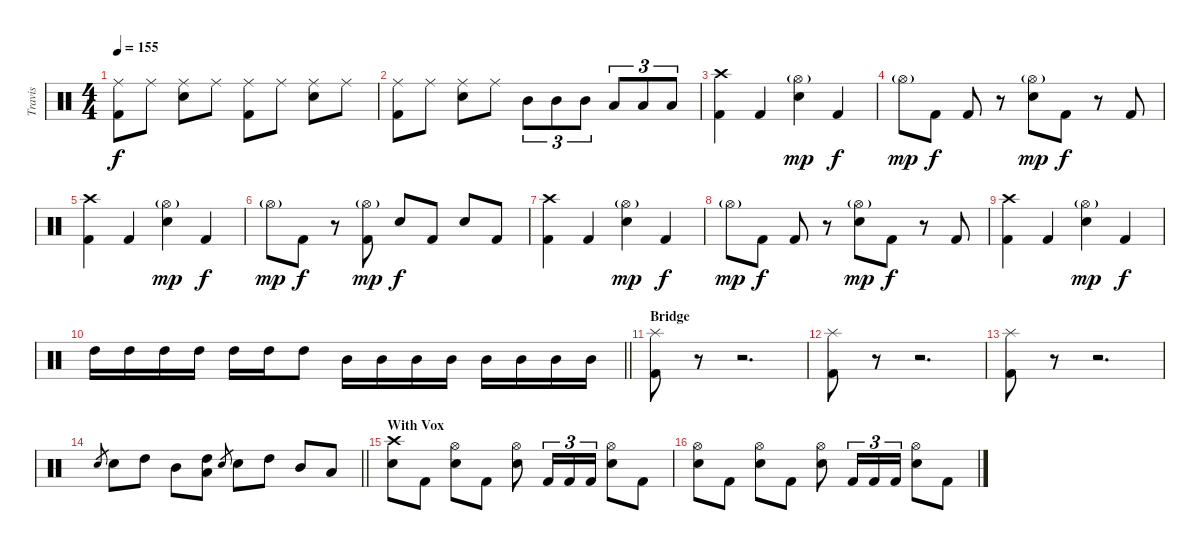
\track ("Travis" "Travis") {instrument percussion}
\staff {score}
\articulation defaults
\ts (4 4)
\tempo 155
\clef neutral
\ks c
("Ride (middle)" "Kick (hit) 2").8{dy f} "Ride (middle)".8 ("Ride (middle)" "Snare (hit) 2").8 "Ride (middle)".8 ("Ride (middle)" "Kick (hit) 2").8 "Ride (middle)".8 ("Ride (middle)" "Snare (hit) 2").8 "Ride (middle)".8 |
("Ride (middle)" "Kick (hit) 2").8 "Ride (middle)".8 ("Ride (middle)" "Snare (hit) 2").8 "Ride (middle)".8 "Mid Tom (hit)".8{tu (3 2)} "Mid Tom (hit)".8{tu (3 2)} "Mid Tom (hit)".8{tu (3 2)} "Low Tom (hit)".8{tu (3 2)} "Low Tom (hit)".8{tu (3 2)} "Low Tom (hit)".8{tu (3 2)} |
("Crash high (hit)" "Kick (hit) 2").4 "Kick (hit) 2".4 ("Hi-Hat (open)"{g} "Snare (hit) 2").4{dy mp} "Kick (hit) 2".4{dy f} |
"Hi-Hat (open)"{g}.8{dy mp} "Kick (hit) 2".8{dy f} "Kick (hit) 2".8 r.8 ("Hi-Hat (open)"{g} "Snare (hit) 2").8{dy mp} "Kick (hit) 2".8{dy f} r.8 "Kick (hit) 2".8 |
("Crash high (hit)" "Kick (hit) 2").4 "Kick (hit) 2".4 ("Hi-Hat (open)"{g} "Snare (hit) 2").4{dy mp} "Kick (hit) 2".4{dy f} |
"Hi-Hat (open)"{g}.8{dy mp} "Kick (hit) 2".8{dy f} r.8 ("Hi-Hat (open)"{g} "Kick (hit) 2").8{dy mp} "Snare (hit) 2".8{dy f} "Kick (hit) 2".8 "Snare (hit) 2".8 "Kick (hit) 2".8 |
("Crash high (hit)" "Kick (hit) 2").4 "Kick (hit) 2".4 ("Hi-Hat (open)"{g} "Snare (hit) 2").4{dy mp} "Kick (hit) 2".4{dy f} |
"Hi-Hat (open)"{g}.8{dy mp} "Kick (hit) 2".8{dy f} "Kick (hit) 2".8 r.8 ("Hi-Hat (open)"{g} "Snare (hit) 2").8{dy mp} "Kick (hit) 2".8{dy f} r.8 "Kick (hit) 2".8 |
("Crash high (hit)" "Kick (hit) 2").4 "Kick (hit) 2".4 ("Hi-Hat (open)"{g} "Snare (hit) 2").4{dy mp} "Kick (hit) 2".4{dy f} |
\barLineRight lightlight "High Tom (hit)".16 "High Tom (hit)".16 "High Tom (hit)".16 "High Tom (hit)".16 "High Tom (hit)".16 "High Tom (hit)".16 "High Tom (hit)".8 "Mid Tom (hit)".16 "Mid Tom (hit)".16 "Mid Tom (hit)".16 "Mid Tom (hit)".16 "Mid Tom (hit)".16 "Mid Tom (hit)".16 "Mid Tom (hit)".16 "Mid Tom (hit)".16
|
\section ("" "Bridge")
("Splash (hit)" "Kick (hit) 2").8 r.8 r.2{d} |
("Splash (hit)" "Kick (hit) 2").8 r.8 r.2{d} |
("Splash (hit)" "Kick (hit) 2").8 r.8 r.2{d} |
\barLineRight lightlight "Snare (hit) 2".8{gr} "Snare (hit) 2".8 "High Tom (hit)".8 "Mid Tom (hit)".8
("High Tom (hit)" "Low Tom (hit)").8 "Snare (hit) 2".8{gr} "Snare (hit) 2".8 "High Tom (hit)".8 "Mid Tom (hit)".8 "Low Tom (hit)".8 |
\section ("" "With Vox")
("Crash high (hit)" "Snare (hit) 2").8 "Kick (hit) 2".8 ("Hi-Hat (open)" "Snare (hit) 2").8 "Kick (hit) 2".8 ("Hi-Hat (open)" "Snare (hit) 2").8 "Kick (hit) 2".16{tu (3 2)} "Kick (hit) 2".16{tu (3 2)} "Kick (hit) 2".16{tu (3 2)} ("Hi-Hat (open)" "Snare (hit) 2").8 "Kick (hit) 2".8 |
("Hi-Hat (open)" "Snare (hit) 2").8 "Kick (hit) 2".8 ("Hi-Hat (open)" "Snare (hit) 2").8 "Kick (hit) 2".8 ("Hi-Hat (open)" "Snare (hit) 2").8 "Kick (hit) 2".16{tu (3 2)} "Kick (hit) 2".16{tu (3 2)} "Kick (hit) 2".16{tu (3 2)} ("Hi-Hat (open)" "Snare (hit) 2").8 "Kick (hit) 2".8
